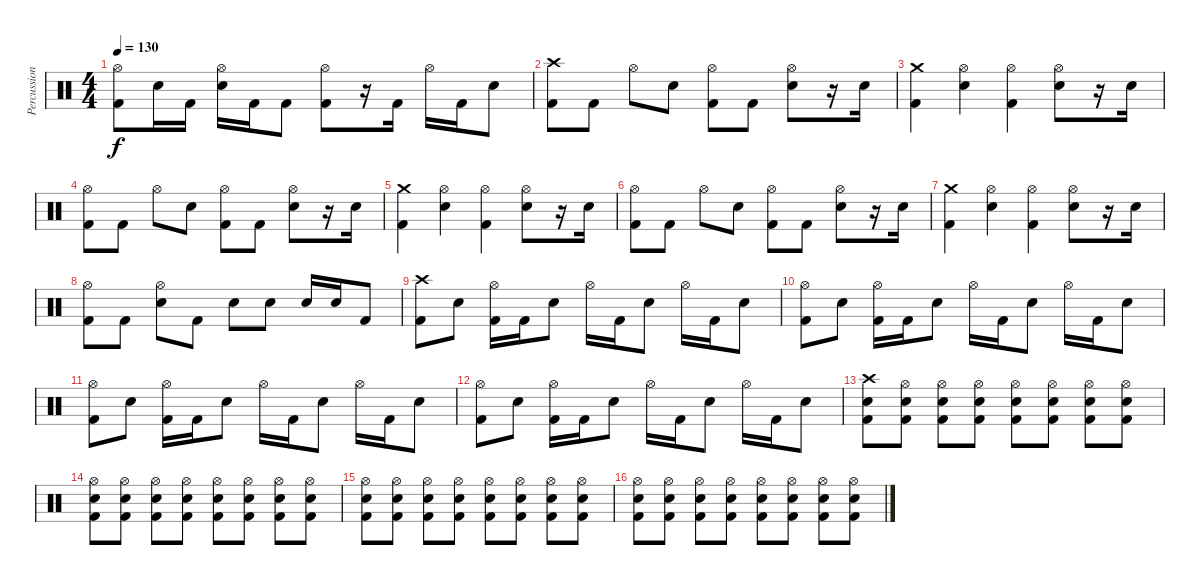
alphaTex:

\track ("Percussion" "Percussion") {instrument percussion}
\staff {score}
\articulation defaults
\ts (4 4)
\tempo 130
\clef neutral
\ks c
("Hi-Hat (open)" "Kick (hit) 2").8{dy f} "Electric Snare (hit)".16 "Kick (hit) 2".16 ("Hi-Hat (open)" "Electric Snare (hit)").16 "Kick (hit) 2".16 "Kick (hit) 2".8 ("Hi-Hat (open)" "Kick (hit) 2").8 r.16 "Kick (hit) 2".16 "Hi-Hat (open)".16 "Kick (hit) 2".16 "Electric Snare (hit)".8 |
("Crash high (hit)" "Kick (hit) 2").8 "Kick (hit) 2".8 "Hi-Hat (open)".8 "Electric Snare (hit)".8 ("Hi-Hat (open)" "Kick (hit) 2").8 "Kick (hit) 2".8 ("Hi-Hat (open)" "Electric Snare (hit)").8 r.16 "Electric Snare (hit)".16 |
("Crash medium (hit)" "Kick (hit) 2").4 ("Hi-Hat (open)" "Electric Snare (hit)").4 ("Hi-Hat (open)" "Kick (hit) 2").4 ("Hi-Hat (open)" "Electric Snare (hit)").8 r.16 "Electric Snare (hit)".16 |
("Hi-Hat (open)" "Kick (hit) 2").8 "Kick (hit) 2".8 "Hi-Hat (open)".8 "Electric Snare (hit)".8 ("Hi-Hat (open)" "Kick (hit) 2").8 "Kick (hit) 2".8 ("Hi-Hat (open)" "Electric Snare (hit)").8 r.16 "Electric Snare (hit)".16 |
("Crash medium (hit)" "Kick (hit) 2").4 ("Hi-Hat (open)" "Electric Snare (hit)").4 ("Hi-Hat (open)" "Kick (hit) 2").4 ("Hi-Hat (open)" "Electric Snare (hit)").8 r.16 "Electric Snare (hit)".16 |
("Hi-Hat (open)" "Kick (hit) 2").8 "Kick (hit) 2".8 "Hi-Hat (open)".8 "Electric Snare (hit)".8 ("Hi-Hat (open)" "Kick (hit) 2").8 "Kick (hit) 2".8 ("Hi-Hat (open)" "Electric Snare (hit)").8 r.16 "Electric Snare (hit)".16 |
("Crash medium (hit)" "Kick (hit) 2").4 ("Hi-Hat (open)" "Electric Snare (hit)").4 ("Hi-Hat (open)" "Kick (hit) 2").4 ("Hi-Hat (open)" "Electric Snare (hit)").8 r.16 "Electric Snare (hit)".16 |
("Hi-Hat (open)" "Kick (hit) 2").8 "Kick (hit) 2".8 ("Hi-Hat (open)" "Electric Snare (hit)").8 "Kick (hit) 2".8 "Electric Snare (hit)".8 "Electric Snare (hit)".8 "Electric Snare (hit)".16 "Electric Snare (hit)".16 "Kick (hit) 2".8 |
("Crash high (hit)" "Kick (hit) 2").8 "Electric Snare (hit)".8 ("Hi-Hat (open)" "Kick (hit) 2").16 "Kick (hit) 2".16 "Electric Snare (hit)".8 "Hi-Hat (open)".16 "Kick (hit) 2".16 "Electric Snare (hit)".8 "Hi-Hat (open)".16 "Kick (hit) 2".16 "Electric Snare (hit)".8 |
("Hi-Hat (open)" "Kick (hit) 2").8 "Electric Snare (hit)".8 ("Hi-Hat (open)" "Kick (hit) 2").16 "Kick (hit) 2".16 "Electric Snare (hit)".8 "Hi-Hat (open)".16 "Kick (hit) 2".16 "Electric Snare (hit)".8 "Hi-Hat (open)".16 "Kick (hit) 2".16 "Electric Snare (hit)".8 |
("Hi-Hat (open)" "Kick (hit) 2").8 "Electric Snare (hit)".8 ("Hi-Hat (open)" "Kick (hit) 2").16 "Kick (hit) 2".16 "Electric Snare (hit)".8 "Hi-Hat (open)".16 "Kick (hit) 2".16 "Electric Snare (hit)".8 "Hi-Hat (open)".16 "Kick (hit) 2".16 "Electric Snare (hit)".8 |
("Hi-Hat (open)" "Kick (hit) 2").8 "Electric Snare (hit)".8 ("Hi-Hat (open)" "Kick (hit) 2").16 "Kick (hit) 2".16 "Electric Snare (hit)".8 "Hi-Hat (open)".16 "Kick (hit) 2".16 "Electric Snare (hit)".8 "Hi-Hat (open)".16 "Kick (hit) 2".16 "Electric Snare (hit)".8 |
("Crash high (hit)" "Electric Snare (hit)" "Kick (hit) 2").8 ("Hi-Hat (open)" "Electric Snare (hit)" "Kick (hit) 2").8 ("Hi-Hat (open)" "Electric Snare (hit)" "Kick (hit) 2").8 ("Hi-Hat (open)" "Electric Snare (hit)" "Kick (hit) 2").8 ("Hi-Hat (open)" "Electric Snare (hit)" "Kick (hit) 2").8 ("Hi-Hat (open)" "Electric Snare (hit)" "Kick (hit) 2").8 ("Hi-Hat (open)" "Electric Snare (hit)" "Kick (hit) 2").8 ("Hi-Hat (open)" "Electric Snare (hit)" "Kick (hit) 2").8 |
("Hi-Hat (open)" "Electric Snare (hit)" "Kick (hit) 2").8 ("Hi-Hat (open)" "Electric Snare (hit)" "Kick (hit) 2").8 ("Hi-Hat (open)" "Electric Snare (hit)" "Kick (hit) 2").8 ("Hi-Hat (open)" "Electric Snare (hit)" "Kick (hit) 2").8 ("Hi-Hat (open)" "Electric Snare (hit)" "Kick (hit) 2").8 ("Hi-Hat (open)" "Electric Snare (hit)" "Kick (hit) 2").8 ("Hi-Hat (open)" "Electric Snare (hit)" "Kick (hit) 2").8 ("Hi-Hat (open)" "Electric Snare (hit)" "Kick (hit) 2").8 |
("Hi-Hat (open)" "Electric Snare (hit)" "Kick (hit) 2").8 ("Hi-Hat (open)" "Electric Snare (hit)" "Kick (hit) 2").8 ("Hi-Hat (open)" "Electric Snare (hit)" "Kick (hit) 2").8 ("Hi-Hat (open)" "Electric Snare (hit)" "Kick (hit) 2").8 ("Hi-Hat (open)" "Electric Snare (hit)" "Kick (hit) 2").8 ("Hi-Hat (open)" "Electric Snare (hit)" "Kick (hit) 2").8 ("Hi-Hat (open)" "Electric Snare (hit)" "Kick (hit) 2").8 ("Hi-Hat (open)" "Electric Snare (hit)" "Kick (hit) 2").8 |
("Hi-Hat (open)" "Electric Snare (hit)" "Kick (hit) 2").8 ("Hi-Hat (open)" "Electric Snare (hit)" "Kick (hit) 2").8 ("Hi-Hat (open)" "Electric Snare (hit)" "Kick (hit) 2").8 ("Hi-Hat (open)" "Electric Snare (hit)" "Kick (hit) 2").8 ("Hi-Hat (open)" "Electric Snare (hit)" "Kick (hit) 2").8 ("Hi-Hat (open)" "Electric Snare (hit)" "Kick (hit) 2").8 ("Hi-Hat (open)" "Electric Snare (hit)" "Kick (hit) 2").8 ("Hi-Hat (open)" "Electric Snare (hit)" "Kick (hit) 2").8
